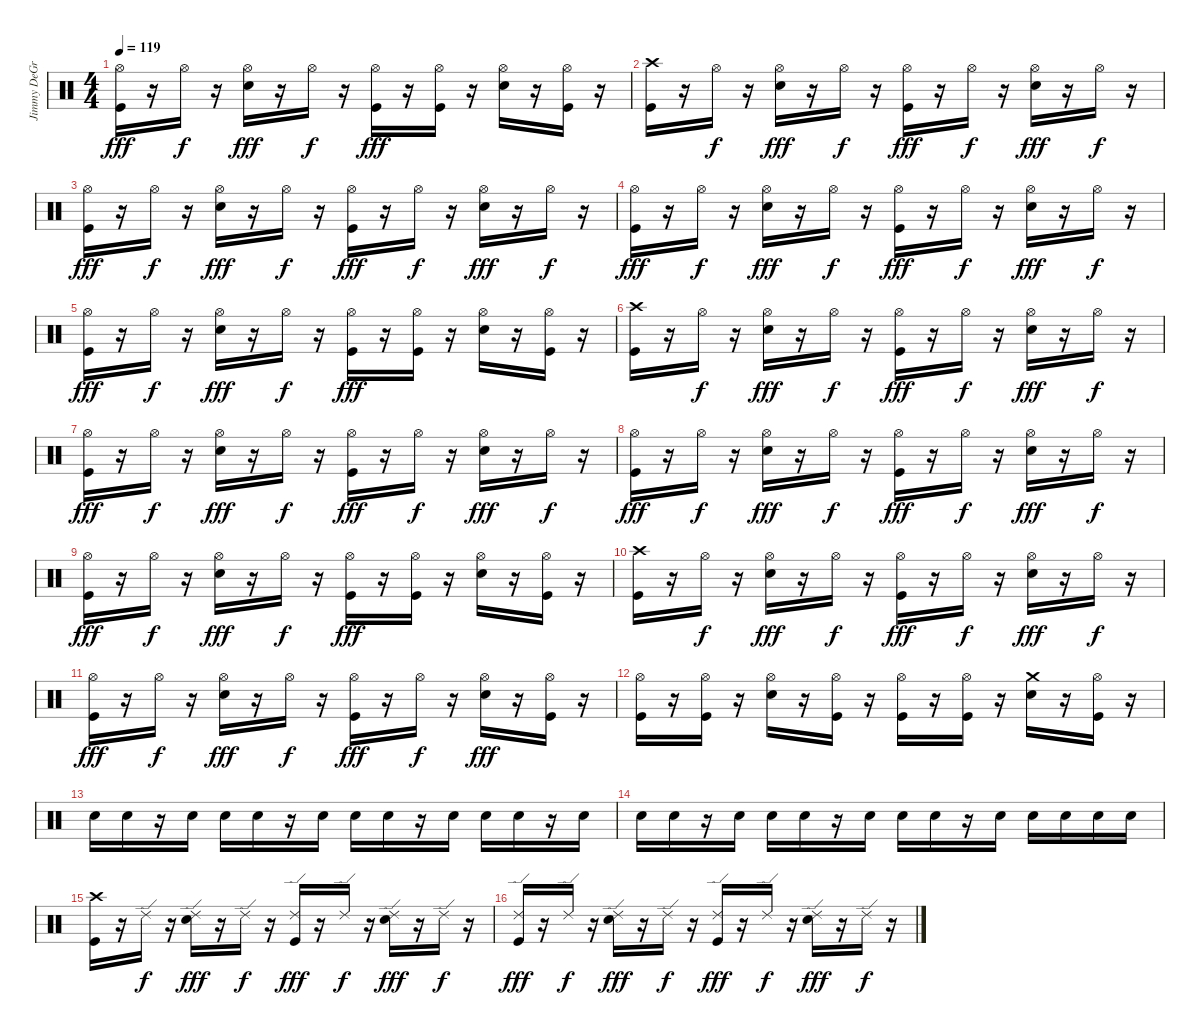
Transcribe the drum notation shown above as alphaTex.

\track ("Jimmy DeGrasso" "Jimmy DeGr") {instrument percussion}
\staff {score}
\articulation defaults
\ts (4 4)
\tempo 119
\clef neutral
\ks c
("Kick (hit)" "Hi-Hat (open)").16{dy fff} r.16 "Hi-Hat (open)".16{dy f} r.16 ("Electric Snare (hit)" "Hi-Hat (open)").16{dy fff} r.16 "Hi-Hat (open)".16{dy f} r.16 ("Kick (hit)" "Hi-Hat (open)").16{dy fff} r.16 ("Kick (hit)" "Hi-Hat (open)").16 r.16 ("Electric Snare (hit)" "Hi-Hat (open)").16 r.16 ("Kick (hit)" "Hi-Hat (open)").16 r.16 |
("Kick (hit)" "Crash high (hit)").16 r.16 "Hi-Hat (open)".16{dy f} r.16 ("Electric Snare (hit)" "Hi-Hat (open)").16{dy fff} r.16 "Hi-Hat (open)".16{dy f} r.16 ("Kick (hit)" "Hi-Hat (open)").16{dy fff} r.16 "Hi-Hat (open)".16{dy f} r.16 ("Electric Snare (hit)" "Hi-Hat (open)").16{dy fff} r.16 "Hi-Hat (open)".16{dy f} r.16 |
("Kick (hit)" "Hi-Hat (open)").16{dy fff} r.16 "Hi-Hat (open)".16{dy f} r.16 ("Electric Snare (hit)" "Hi-Hat (open)").16{dy fff} r.16 "Hi-Hat (open)".16{dy f} r.16 ("Kick (hit)" "Hi-Hat (open)").16{dy fff} r.16 "Hi-Hat (open)".16{dy f} r.16 ("Electric Snare (hit)" "Hi-Hat (open)").16{dy fff} r.16 "Hi-Hat (open)".16{dy f} r.16 |
("Kick (hit)" "Hi-Hat (open)").16{dy fff} r.16 "Hi-Hat (open)".16{dy f} r.16 ("Electric Snare (hit)" "Hi-Hat (open)").16{dy fff} r.16 "Hi-Hat (open)".16{dy f} r.16 ("Kick (hit)" "Hi-Hat (open)").16{dy fff} r.16 "Hi-Hat (open)".16{dy f} r.16 ("Electric Snare (hit)" "Hi-Hat (open)").16{dy fff} r.16 "Hi-Hat (open)".16{dy f} r.16 |
("Kick (hit)" "Hi-Hat (open)").16{dy fff} r.16 "Hi-Hat (open)".16{dy f} r.16 ("Electric Snare (hit)" "Hi-Hat (open)").16{dy fff} r.16 "Hi-Hat (open)".16{dy f} r.16 ("Kick (hit)" "Hi-Hat (open)").16{dy fff} r.16 ("Kick (hit)" "Hi-Hat (open)").16 r.16 ("Electric Snare (hit)" "Hi-Hat (open)").16 r.16 ("Kick (hit)" "Hi-Hat (open)").16 r.16 |
("Kick (hit)" "Crash high (hit)").16 r.16 "Hi-Hat (open)".16{dy f} r.16 ("Electric Snare (hit)" "Hi-Hat (open)").16{dy fff} r.16 "Hi-Hat (open)".16{dy f} r.16 ("Kick (hit)" "Hi-Hat (open)").16{dy fff} r.16 "Hi-Hat (open)".16{dy f} r.16 ("Electric Snare (hit)" "Hi-Hat (open)").16{dy fff} r.16 "Hi-Hat (open)".16{dy f} r.16 |
("Kick (hit)" "Hi-Hat (open)").16{dy fff} r.16 "Hi-Hat (open)".16{dy f} r.16 ("Electric Snare (hit)" "Hi-Hat (open)").16{dy fff} r.16 "Hi-Hat (open)".16{dy f} r.16 ("Kick (hit)" "Hi-Hat (open)").16{dy fff} r.16 "Hi-Hat (open)".16{dy f} r.16 ("Electric Snare (hit)" "Hi-Hat (open)").16{dy fff} r.16 "Hi-Hat (open)".16{dy f} r.16 |
("Kick (hit)" "Hi-Hat (open)").16{dy fff} r.16 "Hi-Hat (open)".16{dy f} r.16 ("Electric Snare (hit)" "Hi-Hat (open)").16{dy fff} r.16 "Hi-Hat (open)".16{dy f} r.16 ("Kick (hit)" "Hi-Hat (open)").16{dy fff} r.16 "Hi-Hat (open)".16{dy f} r.16 ("Electric Snare (hit)" "Hi-Hat (open)").16{dy fff} r.16 "Hi-Hat (open)".16{dy f} r.16 |
("Kick (hit)" "Hi-Hat (open)").16{dy fff} r.16 "Hi-Hat (open)".16{dy f} r.16 ("Electric Snare (hit)" "Hi-Hat (open)").16{dy fff} r.16 "Hi-Hat (open)".16{dy f} r.16 ("Kick (hit)" "Hi-Hat (open)").16{dy fff} r.16 ("Kick (hit)" "Hi-Hat (open)").16 r.16 ("Electric Snare (hit)" "Hi-Hat (open)").16 r.16 ("Kick (hit)" "Hi-Hat (open)").16 r.16 |
("Kick (hit)" "Crash high (hit)").16 r.16 "Hi-Hat (open)".16{dy f} r.16 ("Electric Snare (hit)" "Hi-Hat (open)").16{dy fff} r.16 "Hi-Hat (open)".16{dy f} r.16 ("Kick (hit)" "Hi-Hat (open)").16{dy fff} r.16 "Hi-Hat (open)".16{dy f} r.16 ("Electric Snare (hit)" "Hi-Hat (open)").16{dy fff} r.16 "Hi-Hat (open)".16{dy f} r.16 |
("Kick (hit)" "Hi-Hat (open)").16{dy fff} r.16 "Hi-Hat (open)".16{dy f} r.16 ("Electric Snare (hit)" "Hi-Hat (open)").16{dy fff} r.16 "Hi-Hat (open)".16{dy f} r.16 ("Kick (hit)" "Hi-Hat (open)").16{dy fff} r.16 "Hi-Hat (open)".16{dy f} r.16 ("Electric Snare (hit)" "Hi-Hat (open)").16{dy fff} r.16 ("Kick (hit)" "Hi-Hat (open)").16 r.16 |
("Kick (hit)" "Hi-Hat (open)").16 r.16 ("Kick (hit)" "Hi-Hat (open)").16 r.16 ("Electric Snare (hit)" "Hi-Hat (open)").16 r.16 ("Kick (hit)" "Hi-Hat (open)").16 r.16 ("Kick (hit)" "Hi-Hat (open)").16 r.16 ("Kick (hit)" "Hi-Hat (open)").16 r.16 ("Electric Snare (hit)" "Crash medium (hit)").16 r.16 ("Kick (hit)" "Hi-Hat (open)").16 r.16 |
"Electric Snare (hit)".16 "Electric Snare (hit)".16 r.16 "Electric Snare (hit)".16 "Electric Snare (hit)".16 "Electric Snare (hit)".16 r.16 "Electric Snare (hit)".16 "Electric Snare (hit)".16 "Electric Snare (hit)".16 r.16 "Electric Snare (hit)".16 "Electric Snare (hit)".16 "Electric Snare (hit)".16 r.16 "Electric Snare (hit)".16 |
"Electric Snare (hit)".16 "Electric Snare (hit)".16 r.16 "Electric Snare (hit)".16 "Electric Snare (hit)".16 "Electric Snare (hit)".16 r.16 "Electric Snare (hit)".16 "Electric Snare (hit)".16 "Electric Snare (hit)".16 r.16 "Electric Snare (hit)".16 "Electric Snare (hit)".16 "Electric Snare (hit)".16 "Electric Snare (hit)".16 "Electric Snare (hit)".16 |
("Kick (hit)" "Crash high (hit)").16 r.16 "Ride (edge) 2".16{dy f} r.16 ("Electric Snare (hit)" "Ride (edge) 2").16{dy fff} r.16 "Ride (edge) 2".16{dy f} r.16 ("Kick (hit)" "Ride (edge) 2").16{dy fff} r.16 "Ride (edge) 2".16{dy f} r.16 ("Electric Snare (hit)" "Ride (edge) 2").16{dy fff} r.16 "Ride (edge) 2".16{dy f} r.16 |
("Kick (hit)" "Ride (edge) 2").16{dy fff} r.16 "Ride (edge) 2".16{dy f} r.16 ("Electric Snare (hit)" "Ride (edge) 2").16{dy fff} r.16 "Ride (edge) 2".16{dy f} r.16 ("Kick (hit)" "Ride (edge) 2").16{dy fff} r.16 "Ride (edge) 2".16{dy f} r.16 ("Electric Snare (hit)" "Ride (edge) 2").16{dy fff} r.16 "Ride (edge) 2".16{dy f} r.16
